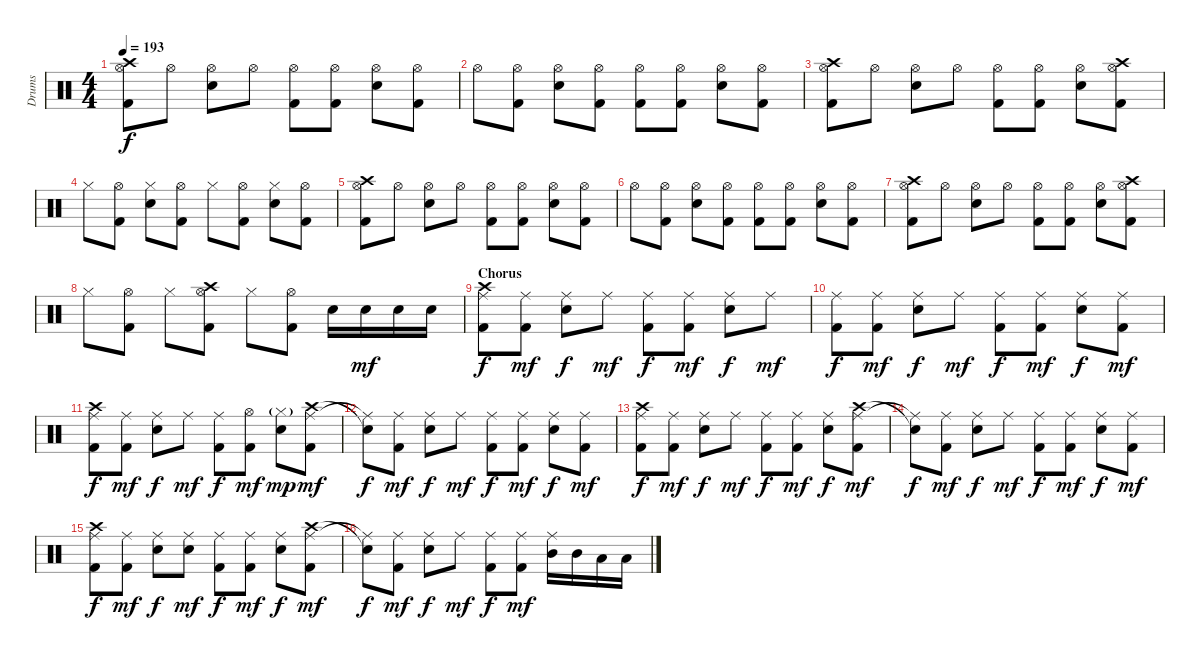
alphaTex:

\track ("Drums" "Drums") {instrument percussion}
\staff {score}
\articulation defaults
\ts (4 4)
\tempo 193
\clef neutral
\ks c
("Crash high (hit)" "Hi-Hat (open)" "Kick (hit) 2").8{dy f} "Hi-Hat (open)".8 ("Hi-Hat (open)" "Electric Snare (hit)").8 "Hi-Hat (open)".8 ("Hi-Hat (open)" "Kick (hit) 2").8 ("Hi-Hat (open)" "Kick (hit) 2").8 ("Hi-Hat (open)" "Electric Snare (hit)").8 ("Hi-Hat (open)" "Kick (hit) 2").8 |
"Hi-Hat (open)".8 ("Hi-Hat (open)" "Kick (hit) 2").8 ("Hi-Hat (open)" "Electric Snare (hit)").8 ("Hi-Hat (open)" "Kick (hit) 2").8 ("Hi-Hat (open)" "Kick (hit) 2").8 ("Hi-Hat (open)" "Kick (hit) 2").8 ("Hi-Hat (open)" "Electric Snare (hit)").8 ("Hi-Hat (open)" "Kick (hit) 2").8 |
("Crash high (hit)" "Hi-Hat (open)" "Kick (hit) 2").8 "Hi-Hat (open)".8 ("Hi-Hat (open)" "Electric Snare (hit)").8 "Hi-Hat (open)".8 ("Hi-Hat (open)" "Kick (hit) 2").8 ("Hi-Hat (open)" "Kick (hit) 2").8 ("Hi-Hat (open)" "Electric Snare (hit)").8 ("Crash high (hit)" "Hi-Hat (open)" "Kick (hit) 2").8 |
"Hi-Hat (closed)".8 ("Hi-Hat (open)" "Kick (hit) 2").8 ("Hi-Hat (closed)" "Electric Snare (hit)").8 ("Hi-Hat (open)" "Kick (hit) 2").8 "Hi-Hat (closed)".8 ("Hi-Hat (open)" "Kick (hit) 2").8 ("Hi-Hat (closed)" "Electric Snare (hit)").8 ("Hi-Hat (open)" "Kick (hit) 2").8 |
("Crash high (hit)" "Hi-Hat (open)" "Kick (hit) 2").8 "Hi-Hat (open)".8 ("Hi-Hat (open)" "Electric Snare (hit)").8 "Hi-Hat (open)".8 ("Hi-Hat (open)" "Kick (hit) 2").8 ("Hi-Hat (open)" "Kick (hit) 2").8 ("Hi-Hat (open)" "Electric Snare (hit)").8 ("Hi-Hat (open)" "Kick (hit) 2").8 |
"Hi-Hat (open)".8 ("Hi-Hat (open)" "Kick (hit) 2").8 ("Hi-Hat (open)" "Electric Snare (hit)").8 ("Hi-Hat (open)" "Kick (hit) 2").8 ("Hi-Hat (open)" "Kick (hit) 2").8 ("Hi-Hat (open)" "Kick (hit) 2").8 ("Hi-Hat (open)" "Electric Snare (hit)").8 ("Hi-Hat (open)" "Kick (hit) 2").8 |
("Crash high (hit)" "Hi-Hat (open)" "Kick (hit) 2").8 "Hi-Hat (open)".8 ("Hi-Hat (open)" "Electric Snare (hit)").8 "Hi-Hat (open)".8 ("Hi-Hat (open)" "Kick (hit) 2").8 ("Hi-Hat (open)" "Kick (hit) 2").8 ("Hi-Hat (open)" "Electric Snare (hit)").8 ("Crash high (hit)" "Hi-Hat (open)" "Kick (hit) 2").8 |
"Hi-Hat (closed)".8 ("Hi-Hat (open)" "Kick (hit) 2").8 "Hi-Hat (closed)".8 ("Crash high (hit)" "Hi-Hat (open)" "Kick (hit) 2").8 "Hi-Hat (closed)".8 ("Hi-Hat (open)" "Kick (hit) 2").8 "Electric Snare (hit)".16 "Electric Snare (hit)".16{dy mf} "Electric Snare (hit)".16 "Electric Snare (hit)".16 |
\section ("" "Chorus")
("Crash high (hit)" "Ride (middle)" "Kick (hit) 2").8{dy f} ("Ride (middle)" "Kick (hit) 2").8{dy mf} ("Ride (middle)" "Electric Snare (hit)").8{dy f} "Ride (middle)".8{dy mf} ("Ride (middle)" "Kick (hit) 2").8{dy f} ("Ride (middle)" "Kick (hit) 2").8{dy mf} ("Ride (middle)" "Electric Snare (hit)").8{dy f} "Ride (middle)".8{dy mf} |
("Ride (middle)" "Kick (hit) 2").8{dy f} ("Ride (middle)" "Kick (hit) 2").8{dy mf} ("Ride (middle)" "Electric Snare (hit)").8{dy f} "Ride (middle)".8{dy mf} ("Ride (middle)" "Kick (hit) 2").8{dy f} ("Ride (middle)" "Kick (hit) 2").8{dy mf} ("Ride (middle)" "Electric Snare (hit)").8{dy f} ("Ride (middle)" "Kick (hit) 2").8{dy mf} |
("Crash high (hit)" "Ride (middle)" "Kick (hit) 2").8{dy f} ("Ride (middle)" "Kick (hit) 2").8{dy mf} ("Ride (middle)" "Electric Snare (hit)").8{dy f} "Ride (middle)".8{dy mf} ("Ride (middle)" "Kick (hit) 2").8{dy f} ("Hi-Hat (open)" "Kick (hit) 2").8{dy mf} ("Hi-Hat (closed)"{g} "Electric Snare (hit)").8{dy mp} ("Crash high (hit)" "Ride (middle)" "Kick (hit) 2").8{dy mf} |
("Snare (hit)"{t} "Ride (middle)"{t}).8{dy f} ("Ride (middle)" "Kick (hit) 2").8{dy mf} ("Ride (middle)" "Electric Snare (hit)").8{dy f} "Ride (middle)".8{dy mf} ("Ride (middle)" "Kick (hit) 2").8{dy f} ("Ride (middle)" "Kick (hit) 2").8{dy mf} ("Ride (middle)" "Electric Snare (hit)").8{dy f} ("Ride (middle)" "Kick (hit) 2").8{dy mf} |
("Crash high (hit)" "Ride (middle)" "Kick (hit) 2").8{dy f} ("Ride (middle)" "Kick (hit) 2").8{dy mf} ("Ride (middle)" "Electric Snare (hit)").8{dy f} "Ride (middle)".8{dy mf} ("Ride (middle)" "Kick (hit) 2").8{dy f} ("Ride (middle)" "Kick (hit) 2").8{dy mf} ("Ride (middle)" "Electric Snare (hit)").8{dy f} ("Crash high (hit)" "Ride (middle)" "Kick (hit) 2").8{dy mf} |
("Snare (hit)"{t} "Ride (middle)"{t}).8{dy f} ("Ride (middle)" "Kick (hit) 2").8{dy mf} ("Ride (middle)" "Electric Snare (hit)").8{dy f} "Ride (middle)".8{dy mf} ("Ride (middle)" "Kick (hit) 2").8{dy f} ("Ride (middle)" "Kick (hit) 2").8{dy mf} ("Ride (middle)" "Electric Snare (hit)").8{dy f} ("Ride (middle)" "Kick (hit) 2").8{dy mf} |
("Crash high (hit)" "Ride (middle)" "Kick (hit) 2").8{dy f} ("Ride (middle)" "Kick (hit) 2").8{dy mf} ("Ride (middle)" "Electric Snare (hit)").8{dy f} ("Ride (middle)" "Electric Snare (hit)").8{dy mf} ("Ride (middle)" "Kick (hit) 2").8{dy f} ("Ride (middle)" "Kick (hit) 2").8{dy mf} ("Ride (middle)" "Electric Snare (hit)").8{dy f} ("Crash high (hit)" "Ride (middle)" "Kick (hit) 2").8{dy mf} |
("Snare (hit)"{t} "Ride (middle)"{t}).8{dy f} ("Ride (middle)" "Kick (hit) 2").8{dy mf} ("Ride (middle)" "Electric Snare (hit)").8{dy f} "Ride (middle)".8{dy mf} ("Ride (middle)" "Kick (hit) 2").8{dy f} ("Ride (middle)" "Kick (hit) 2").8{dy mf} ("Ride (middle)" "Mid Tom (hit)").16 "Mid Tom (hit)".16 "Low Tom (hit)".16 "Low Tom (hit)".16
